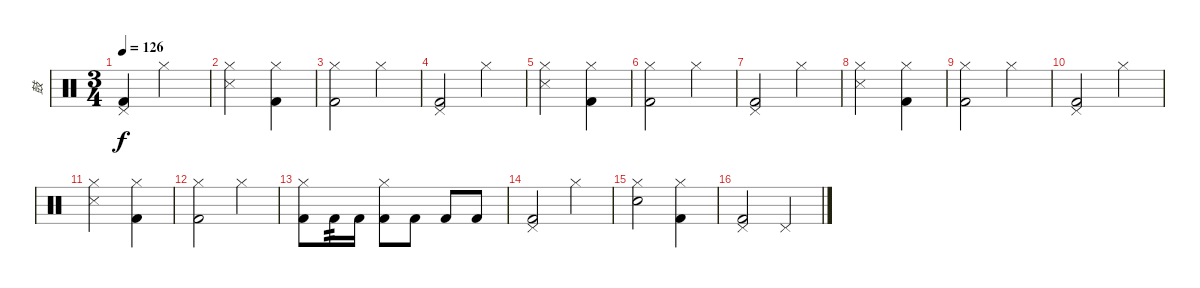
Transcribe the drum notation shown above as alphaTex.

\track ("鼓" "鼓") {instrument percussion}
\staff {score}
\articulation defaults
\ts (3 4)
\tempo 126
\clef neutral
\ks c
("Kick (hit) 2" "Pedal Hi-Hat (hit)").4{dy f} "Hi-Hat (closed)".2 |
("Snare (side stick) 3" "Hi-Hat (closed)").2 ("Kick (hit) 2" "Hi-Hat (closed)").4 |
("Kick (hit) 2" "Hi-Hat (closed)").2 "Hi-Hat (closed)".4 |
("Kick (hit) 2" "Pedal Hi-Hat (hit)").2 "Hi-Hat (closed)".4 |
("Snare (side stick) 3" "Hi-Hat (closed)").2 ("Kick (hit) 2" "Hi-Hat (closed)").4 |
("Kick (hit) 2" "Hi-Hat (closed)").2 "Hi-Hat (closed)".4 |
("Kick (hit) 2" "Pedal Hi-Hat (hit)").2 "Hi-Hat (closed)".4 |
("Snare (side stick) 3" "Hi-Hat (closed)").2 ("Kick (hit) 2" "Hi-Hat (closed)").4 |
("Kick (hit) 2" "Hi-Hat (closed)").2 "Hi-Hat (closed)".4 |
("Kick (hit) 2" "Pedal Hi-Hat (hit)").2 "Hi-Hat (closed)".4 |
("Snare (side stick) 3" "Hi-Hat (closed)").2 ("Kick (hit) 2" "Hi-Hat (closed)").4 |
("Kick (hit) 2" "Hi-Hat (closed)").2 "Hi-Hat (closed)".4 |
("Kick (hit) 2" "Hi-Hat (closed)").8 "Kick (hit) 2".16{tp 2} "Kick (hit) 2".16 ("Kick (hit) 2" "Hi-Hat (closed)").8 "Kick (hit) 2".8 "Kick (hit) 2".8 "Kick (hit) 2".8 |
("Kick (hit) 2" "Pedal Hi-Hat (hit)").2 "Hi-Hat (closed)".4 |
("Snare (hit) 2" "Hi-Hat (closed)").2 ("Kick (hit) 2" "Hi-Hat (closed)").4 |
("Kick (hit) 2" "Pedal Hi-Hat (hit)").2 "Pedal Hi-Hat (hit)".4
